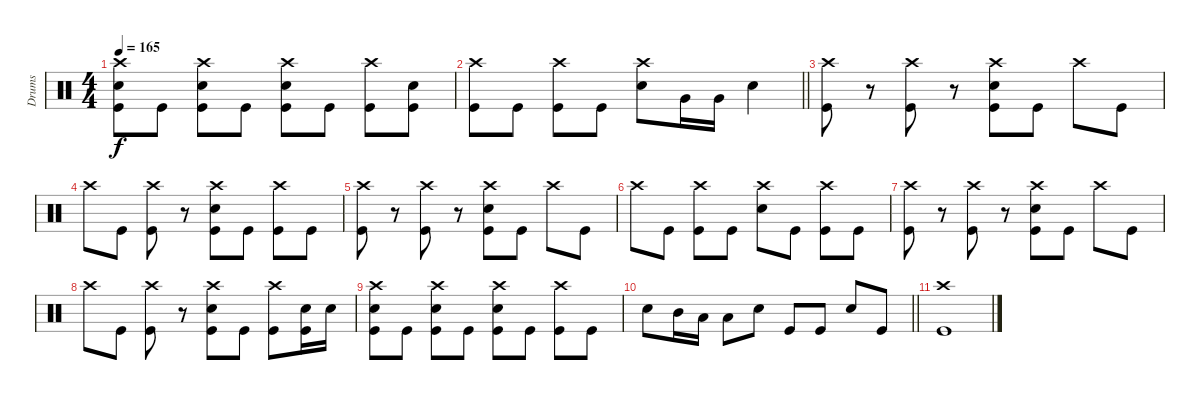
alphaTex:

\track ("Drums" "Drums") {instrument percussion}
\staff {score}
\articulation defaults
\ts (4 4)
\tempo 165
\clef neutral
\ks c
("Crash high (hit)" "Snare (hit) 2" "Kick (hit)").8{dy f} "Kick (hit)".8 ("Crash high (hit)" "Snare (hit) 2" "Kick (hit)").8 "Kick (hit)".8 ("Crash high (hit)" "Snare (hit) 2" "Kick (hit)").8 "Kick (hit)".8 ("Crash high (hit)" "Kick (hit)").8 ("Snare (hit) 2" "Kick (hit)").8 |
\barLineRight lightlight
("Crash high (hit)" "Kick (hit)").8 "Kick (hit)".8 ("Crash high (hit)" "Kick (hit)").8 "Kick (hit)".8 ("Crash high (hit)" "Snare (hit) 2").8 "Very Low Tom (hit)".16 "Very Low Tom (hit)".16 "Snare (hit) 2".4 |
("Crash high (hit)" "Kick (hit)").8 r.8 ("Crash high (hit)" "Kick (hit)").8 r.8 ("Crash high (hit)" "Snare (hit) 2" "Kick (hit)").8 "Kick (hit)".8 "Crash high (hit)".8 "Kick (hit)".8 |
"Crash high (hit)".8 "Kick (hit)".8 ("Crash high (hit)" "Kick (hit)").8 r.8 ("Crash high (hit)" "Snare (hit) 2" "Kick (hit)").8 "Kick (hit)".8 ("Crash high (hit)" "Kick (hit)").8 "Kick (hit)".8 |
("Crash high (hit)" "Kick (hit)").8 r.8 ("Crash high (hit)" "Kick (hit)").8 r.8 ("Crash high (hit)" "Snare (hit) 2" "Kick (hit)").8 "Kick (hit)".8 "Crash high (hit)".8 "Kick (hit)".8 |
"Crash high (hit)".8 "Kick (hit)".8 ("Crash high (hit)" "Kick (hit)").8 "Kick (hit)".8 ("Crash high (hit)" "Snare (hit) 2").8 "Kick (hit)".8 ("Crash high (hit)" "Kick (hit)").8 "Kick (hit)".8 |
("Crash high (hit)" "Kick (hit)").8 r.8 ("Crash high (hit)" "Kick (hit)").8 r.8 ("Crash high (hit)" "Snare (hit) 2" "Kick (hit)").8 "Kick (hit)".8 "Crash high (hit)".8 "Kick (hit)".8 |
"Crash high (hit)".8 "Kick (hit)".8 ("Crash high (hit)" "Kick (hit)").8 r.8 ("Crash high (hit)" "Snare (hit) 2" "Kick (hit)").8 "Kick (hit)".8 ("Crash high (hit)" "Kick (hit)").8 ("Snare (hit) 2" "Kick (hit)").16 "Snare (hit) 2".16 |
("Crash high (hit)" "Snare (hit) 2" "Kick (hit)").8 "Kick (hit)".8 ("Crash high (hit)" "Snare (hit) 2" "Kick (hit)").8 "Kick (hit)".8 ("Crash high (hit)" "Snare (hit) 2" "Kick (hit)").8 "Kick (hit)".8 ("Crash high (hit)" "Kick (hit)").8 "Kick (hit)".8 |
\barLineRight lightlight "Snare (hit) 2".8 "Mid Tom (hit)".16 "Low Tom (hit)".16 "Low Floor Tom (hit)".8 "Snare (hit) 2".8 "Kick (hit)".8 "Kick (hit)".8 "Snare (hit) 2".8 "Kick (hit)".8
|
("Crash high (hit)" "Kick (hit)").1
